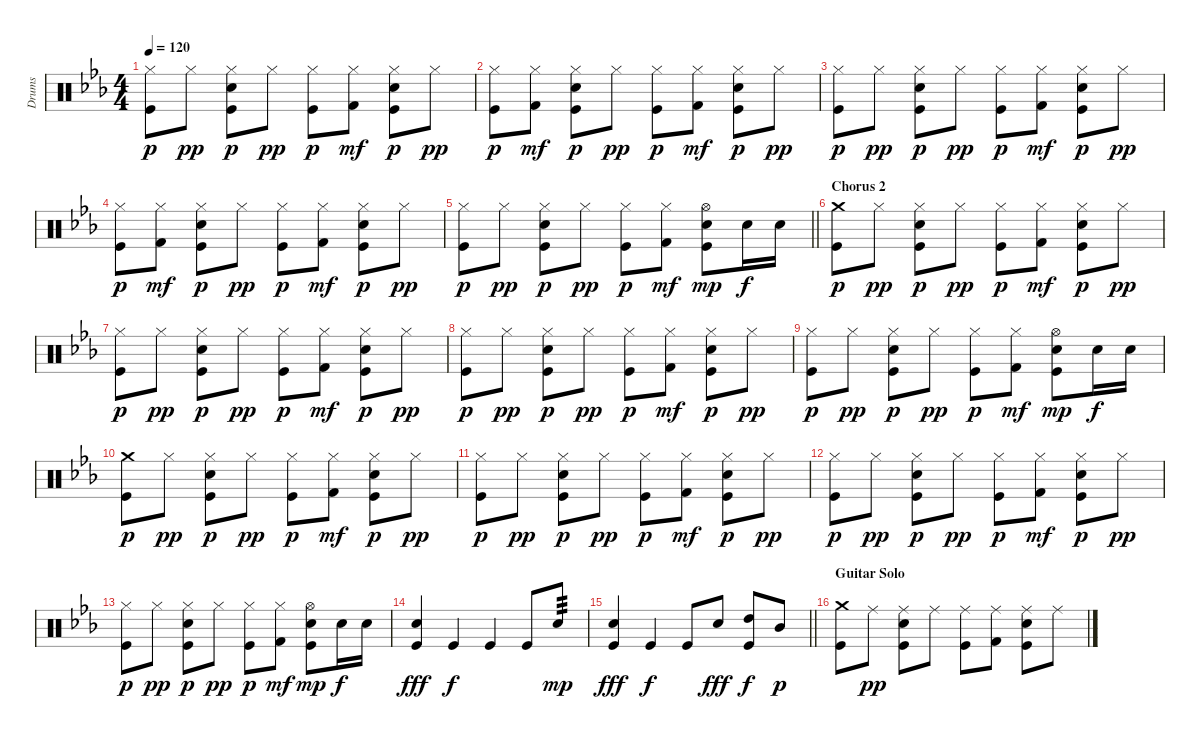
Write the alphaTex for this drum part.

\track ("Drums" "Drums") {instrument percussion}
\staff {score}
\articulation defaults
\ts (4 4)
\tempo 120
\clef neutral
\ks cminor
("Hi-Hat (closed)" "Kick (hit)").8{dy p} "Hi-Hat (closed)".8{dy pp} ("Hi-Hat (closed)" "Electric Snare (hit)" "Kick (hit)").8{dy p} "Hi-Hat (closed)".8{dy pp} ("Hi-Hat (closed)" "Kick (hit)").8{dy p} ("Hi-Hat (closed)" "Kick (hit) 2").8{dy mf} ("Hi-Hat (closed)" "Electric Snare (hit)" "Kick (hit)").8{dy p} "Hi-Hat (closed)".8{dy pp} |
("Hi-Hat (closed)" "Kick (hit)").8{dy p} ("Hi-Hat (closed)" "Kick (hit) 2").8{dy mf} ("Hi-Hat (closed)" "Electric Snare (hit)" "Kick (hit)").8{dy p} "Hi-Hat (closed)".8{dy pp} ("Hi-Hat (closed)" "Kick (hit)").8{dy p} ("Hi-Hat (closed)" "Kick (hit) 2").8{dy mf} ("Hi-Hat (closed)" "Electric Snare (hit)" "Kick (hit)").8{dy p} "Hi-Hat (closed)".8{dy pp} |
("Hi-Hat (closed)" "Kick (hit)").8{dy p} "Hi-Hat (closed)".8{dy pp} ("Hi-Hat (closed)" "Electric Snare (hit)" "Kick (hit)").8{dy p} "Hi-Hat (closed)".8{dy pp} ("Hi-Hat (closed)" "Kick (hit)").8{dy p} ("Hi-Hat (closed)" "Kick (hit) 2").8{dy mf} ("Hi-Hat (closed)" "Electric Snare (hit)" "Kick (hit)").8{dy p} "Hi-Hat (closed)".8{dy pp} |
("Hi-Hat (closed)" "Kick (hit)").8{dy p} ("Hi-Hat (closed)" "Kick (hit) 2").8{dy mf} ("Hi-Hat (closed)" "Electric Snare (hit)" "Kick (hit)").8{dy p} "Hi-Hat (closed)".8{dy pp} ("Hi-Hat (closed)" "Kick (hit)").8{dy p} ("Hi-Hat (closed)" "Kick (hit) 2").8{dy mf} ("Hi-Hat (closed)" "Electric Snare (hit)" "Kick (hit)").8{dy p} "Hi-Hat (closed)".8{dy pp} |
\barLineRight lightlight
("Hi-Hat (closed)" "Kick (hit)").8{dy p} "Hi-Hat (closed)".8{dy pp} ("Hi-Hat (closed)" "Electric Snare (hit)" "Kick (hit)").8{dy p} "Hi-Hat (closed)".8{dy pp} ("Hi-Hat (closed)" "Kick (hit)").8{dy p} ("Hi-Hat (closed)" "Kick (hit) 2").8{dy mf} ("Hi-Hat (open)" "Electric Snare (hit)" "Kick (hit)").8{dy mp} "Electric Snare (hit)".16{dy f} "Electric Snare (hit)".16 |
\section ("" "Chorus 2")
("Crash medium (hit)" "Kick (hit)").8{dy p} "Hi-Hat (closed)".8{dy pp} ("Hi-Hat (closed)" "Electric Snare (hit)" "Kick (hit)").8{dy p} "Hi-Hat (closed)".8{dy pp} ("Hi-Hat (closed)" "Kick (hit)").8{dy p} ("Hi-Hat (closed)" "Kick (hit) 2").8{dy mf} ("Hi-Hat (closed)" "Electric Snare (hit)" "Kick (hit)").8{dy p} "Hi-Hat (closed)".8{dy pp} |
("Hi-Hat (closed)" "Kick (hit)").8{dy p} "Hi-Hat (closed)".8{dy pp} ("Hi-Hat (closed)" "Electric Snare (hit)" "Kick (hit)").8{dy p} "Hi-Hat (closed)".8{dy pp} ("Hi-Hat (closed)" "Kick (hit)").8{dy p} ("Hi-Hat (closed)" "Kick (hit) 2").8{dy mf} ("Hi-Hat (closed)" "Electric Snare (hit)" "Kick (hit)").8{dy p} "Hi-Hat (closed)".8{dy pp} |
("Hi-Hat (closed)" "Kick (hit)").8{dy p} "Hi-Hat (closed)".8{dy pp} ("Hi-Hat (closed)" "Electric Snare (hit)" "Kick (hit)").8{dy p} "Hi-Hat (closed)".8{dy pp} ("Hi-Hat (closed)" "Kick (hit)").8{dy p} ("Hi-Hat (closed)" "Kick (hit) 2").8{dy mf} ("Hi-Hat (closed)" "Electric Snare (hit)" "Kick (hit)").8{dy p} "Hi-Hat (closed)".8{dy pp} |
("Hi-Hat (closed)" "Kick (hit)").8{dy p} "Hi-Hat (closed)".8{dy pp} ("Hi-Hat (closed)" "Electric Snare (hit)" "Kick (hit)").8{dy p} "Hi-Hat (closed)".8{dy pp} ("Hi-Hat (closed)" "Kick (hit)").8{dy p} ("Hi-Hat (closed)" "Kick (hit) 2").8{dy mf} ("Hi-Hat (open)" "Electric Snare (hit)" "Kick (hit)").8{dy mp} "Electric Snare (hit)".16{dy f} "Electric Snare (hit)".16 |
("Crash medium (hit)" "Kick (hit)").8{dy p} "Hi-Hat (closed)".8{dy pp} ("Hi-Hat (closed)" "Electric Snare (hit)" "Kick (hit)").8{dy p} "Hi-Hat (closed)".8{dy pp} ("Hi-Hat (closed)" "Kick (hit)").8{dy p} ("Hi-Hat (closed)" "Kick (hit) 2").8{dy mf} ("Hi-Hat (closed)" "Electric Snare (hit)" "Kick (hit)").8{dy p} "Hi-Hat (closed)".8{dy pp} |
("Hi-Hat (closed)" "Kick (hit)").8{dy p} "Hi-Hat (closed)".8{dy pp} ("Hi-Hat (closed)" "Electric Snare (hit)" "Kick (hit)").8{dy p} "Hi-Hat (closed)".8{dy pp} ("Hi-Hat (closed)" "Kick (hit)").8{dy p} ("Hi-Hat (closed)" "Kick (hit) 2").8{dy mf} ("Hi-Hat (closed)" "Electric Snare (hit)" "Kick (hit)").8{dy p} "Hi-Hat (closed)".8{dy pp} |
("Hi-Hat (closed)" "Kick (hit)").8{dy p} "Hi-Hat (closed)".8{dy pp} ("Hi-Hat (closed)" "Electric Snare (hit)" "Kick (hit)").8{dy p} "Hi-Hat (closed)".8{dy pp} ("Hi-Hat (closed)" "Kick (hit)").8{dy p} ("Hi-Hat (closed)" "Kick (hit) 2").8{dy mf} ("Hi-Hat (closed)" "Electric Snare (hit)" "Kick (hit)").8{dy p} "Hi-Hat (closed)".8{dy pp} |
("Hi-Hat (closed)" "Kick (hit)").8{dy p} "Hi-Hat (closed)".8{dy pp} ("Hi-Hat (closed)" "Electric Snare (hit)" "Kick (hit)").8{dy p} "Hi-Hat (closed)".8{dy pp} ("Hi-Hat (closed)" "Kick (hit)").8{dy p} ("Hi-Hat (closed)" "Kick (hit) 2").8{dy mf} ("Hi-Hat (open)" "Electric Snare (hit)" "Kick (hit)").8{dy mp} "Electric Snare (hit)".16{dy f} "Electric Snare (hit)".16 |
("Electric Snare (hit)" "Kick (hit)").4{dy fff} "Kick (hit)".4{dy f} "Kick (hit)".4 "Kick (hit)".8 "Electric Snare (hit)".8{tp 3 dy mp} |
\barLineRight lightlight
("Electric Snare (hit)" "Kick (hit)").4{dy fff} "Kick (hit)".4{dy f} "Kick (hit)".8 "Electric Snare (hit)".8{dy fff} ("High Tom (hit)" "Kick (hit)").8{dy f} "Mid Tom (hit)".8{dy p} |
\section ("" "Guitar Solo")
("Crash medium (hit)" "Kick (hit)").8 "Ride (middle)".8{dy pp} ("Ride (middle)" "Electric Snare (hit)" "Kick (hit)").8 "Ride (middle)".8 ("Ride (middle)" "Kick (hit)").8 ("Kick (hit) 2" "Ride (middle)").8 ("Ride (middle)" "Electric Snare (hit)" "Kick (hit)").8 "Ride (middle)".8
